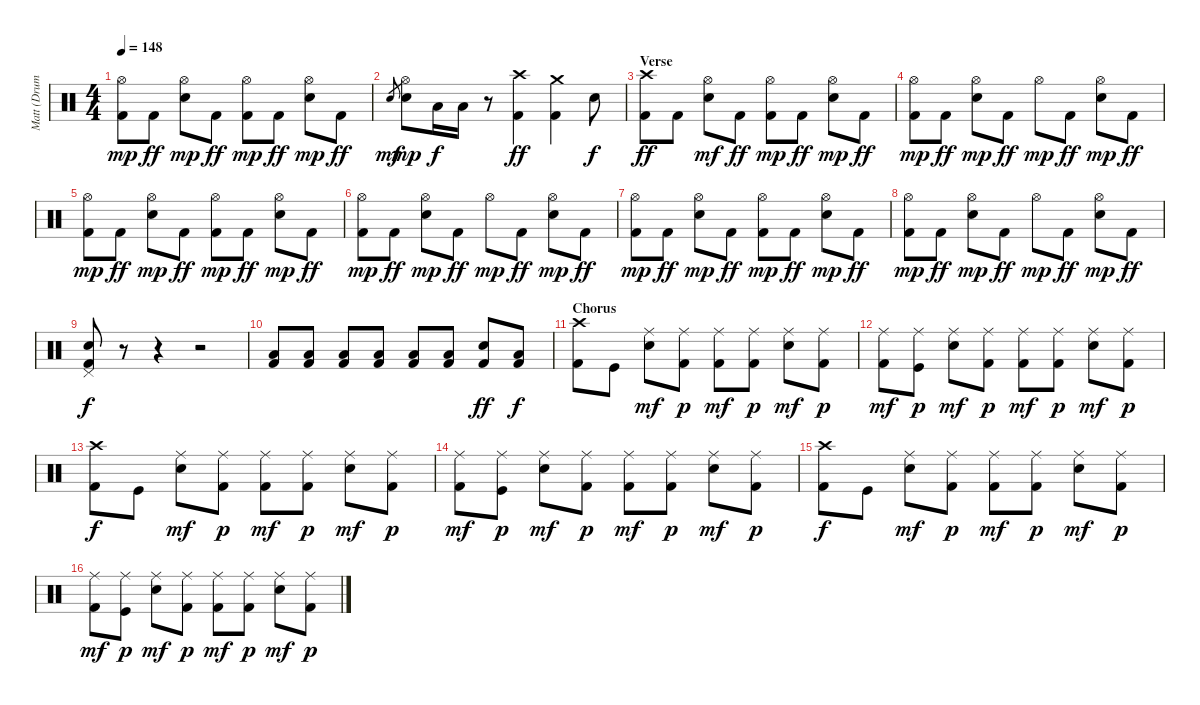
\track ("Matt (Drums)" "Matt (Drum") {instrument percussion}
\staff {score}
\articulation defaults
\ts (4 4)
\tempo 148
\clef neutral
\ks c
("Kick (hit) 2" "Hi-Hat (open)").8{dy mp} "Kick (hit) 2".8{dy ff} ("Electric Snare (hit)" "Hi-Hat (open)").8{dy mp} "Kick (hit) 2".8{dy ff} ("Kick (hit) 2" "Hi-Hat (open)").8{dy mp} "Kick (hit) 2".8{dy ff} ("Electric Snare (hit)" "Hi-Hat (open)").8{dy mp} "Kick (hit) 2".8{dy ff} |
"Electric Snare (hit)".8{gr dy mf} ("Electric Snare (hit)" "Hi-Hat (open)").8{dy mp} "Low Tom (hit)".16{dy f} "Low Tom (hit)".16 r.8 ("Kick (hit) 2" "Crash high (hit)").4{dy ff} ("Kick (hit) 2" "Crash medium (hit)").4 "Electric Snare (hit)".8{dy f} |
\section ("" "Verse")
("Kick (hit) 2" "Crash high (hit)").8{dy ff} "Kick (hit) 2".8 ("Electric Snare (hit)" "Hi-Hat (open)").8{dy mf} "Kick (hit) 2".8{dy ff} ("Kick (hit) 2" "Hi-Hat (open)").8{dy mp} "Kick (hit) 2".8{dy ff} ("Electric Snare (hit)" "Hi-Hat (open)").8{dy mp} "Kick (hit) 2".8{dy ff} |
("Kick (hit) 2" "Hi-Hat (open)").8{dy mp} "Kick (hit) 2".8{dy ff} ("Electric Snare (hit)" "Hi-Hat (open)").8{dy mp} "Kick (hit) 2".8{dy ff} "Hi-Hat (open)".8{dy mp} "Kick (hit) 2".8{dy ff} ("Electric Snare (hit)" "Hi-Hat (open)").8{dy mp} "Kick (hit) 2".8{dy ff} |
("Kick (hit) 2" "Hi-Hat (open)").8{dy mp} "Kick (hit) 2".8{dy ff} ("Electric Snare (hit)" "Hi-Hat (open)").8{dy mp} "Kick (hit) 2".8{dy ff} ("Kick (hit) 2" "Hi-Hat (open)").8{dy mp} "Kick (hit) 2".8{dy ff} ("Electric Snare (hit)" "Hi-Hat (open)").8{dy mp} "Kick (hit) 2".8{dy ff} |
("Kick (hit) 2" "Hi-Hat (open)").8{dy mp} "Kick (hit) 2".8{dy ff} ("Electric Snare (hit)" "Hi-Hat (open)").8{dy mp} "Kick (hit) 2".8{dy ff} "Hi-Hat (open)".8{dy mp} "Kick (hit) 2".8{dy ff} ("Electric Snare (hit)" "Hi-Hat (open)").8{dy mp} "Kick (hit) 2".8{dy ff} |
("Kick (hit) 2" "Hi-Hat (open)").8{dy mp} "Kick (hit) 2".8{dy ff} ("Electric Snare (hit)" "Hi-Hat (open)").8{dy mp} "Kick (hit) 2".8{dy ff} ("Kick (hit) 2" "Hi-Hat (open)").8{dy mp} "Kick (hit) 2".8{dy ff} ("Electric Snare (hit)" "Hi-Hat (open)").8{dy mp} "Kick (hit) 2".8{dy ff} |
("Kick (hit) 2" "Hi-Hat (open)").8{dy mp} "Kick (hit) 2".8{dy ff} ("Electric Snare (hit)" "Hi-Hat (open)").8{dy mp} "Kick (hit) 2".8{dy ff} "Hi-Hat (open)".8{dy mp} "Kick (hit) 2".8{dy ff} ("Electric Snare (hit)" "Hi-Hat (open)").8{dy mp} "Kick (hit) 2".8{dy ff} |
("Electric Snare (hit)" "Kick (hit) 2" "Pedal Hi-Hat (hit)").8{dy f} r.8 r.4 r.2 |
("Low Tom (hit)" "Kick (hit) 2").8 ("Low Tom (hit)" "Kick (hit) 2").8 ("Low Tom (hit)" "Kick (hit) 2").8 ("Low Tom (hit)" "Kick (hit) 2").8 ("Low Tom (hit)" "Kick (hit) 2").8 ("Low Tom (hit)" "Kick (hit) 2").8 ("Electric Snare (hit)" "Kick (hit) 2").8{dy ff} ("Low Tom (hit)" "Kick (hit) 2").8{dy f} |
\section ("" "Chorus")
("Kick (hit) 2" "Crash high (hit)").8 "Kick (hit)".8 ("Electric Snare (hit)" "Ride (middle)").8{dy mf} ("Kick (hit) 2" "Ride (middle)").8{dy p} ("Kick (hit) 2" "Ride (middle)").8{dy mf} ("Kick (hit) 2" "Ride (middle)").8{dy p} ("Electric Snare (hit)" "Ride (middle)").8{dy mf} ("Kick (hit) 2" "Ride (middle)").8{dy p} |
("Kick (hit) 2" "Ride (middle)").8{dy mf} ("Kick (hit)" "Ride (middle)").8{dy p} ("Electric Snare (hit)" "Ride (middle)").8{dy mf} ("Kick (hit) 2" "Ride (middle)").8{dy p} ("Kick (hit) 2" "Ride (middle)").8{dy mf} ("Kick (hit) 2" "Ride (middle)").8{dy p} ("Electric Snare (hit)" "Ride (middle)").8{dy mf} ("Kick (hit) 2" "Ride (middle)").8{dy p} |
("Kick (hit) 2" "Crash high (hit)").8{dy f} "Kick (hit)".8 ("Electric Snare (hit)" "Ride (middle)").8{dy mf} ("Kick (hit) 2" "Ride (middle)").8{dy p} ("Kick (hit) 2" "Ride (middle)").8{dy mf} ("Kick (hit) 2" "Ride (middle)").8{dy p} ("Electric Snare (hit)" "Ride (middle)").8{dy mf} ("Kick (hit) 2" "Ride (middle)").8{dy p} |
("Kick (hit) 2" "Ride (middle)").8{dy mf} ("Kick (hit)" "Ride (middle)").8{dy p} ("Electric Snare (hit)" "Ride (middle)").8{dy mf} ("Kick (hit) 2" "Ride (middle)").8{dy p} ("Kick (hit) 2" "Ride (middle)").8{dy mf} ("Kick (hit) 2" "Ride (middle)").8{dy p} ("Electric Snare (hit)" "Ride (middle)").8{dy mf} ("Kick (hit) 2" "Ride (middle)").8{dy p} |
("Kick (hit) 2" "Crash high (hit)").8{dy f} "Kick (hit)".8 ("Electric Snare (hit)" "Ride (middle)").8{dy mf} ("Kick (hit) 2" "Ride (middle)").8{dy p} ("Kick (hit) 2" "Ride (middle)").8{dy mf} ("Kick (hit) 2" "Ride (middle)").8{dy p} ("Electric Snare (hit)" "Ride (middle)").8{dy mf} ("Kick (hit) 2" "Ride (middle)").8{dy p} |
("Kick (hit) 2" "Ride (middle)").8{dy mf} ("Kick (hit)" "Ride (middle)").8{dy p} ("Electric Snare (hit)" "Ride (middle)").8{dy mf} ("Kick (hit) 2" "Ride (middle)").8{dy p} ("Kick (hit) 2" "Ride (middle)").8{dy mf} ("Kick (hit) 2" "Ride (middle)").8{dy p} ("Electric Snare (hit)" "Ride (middle)").8{dy mf} ("Kick (hit) 2" "Ride (middle)").8{dy p}
